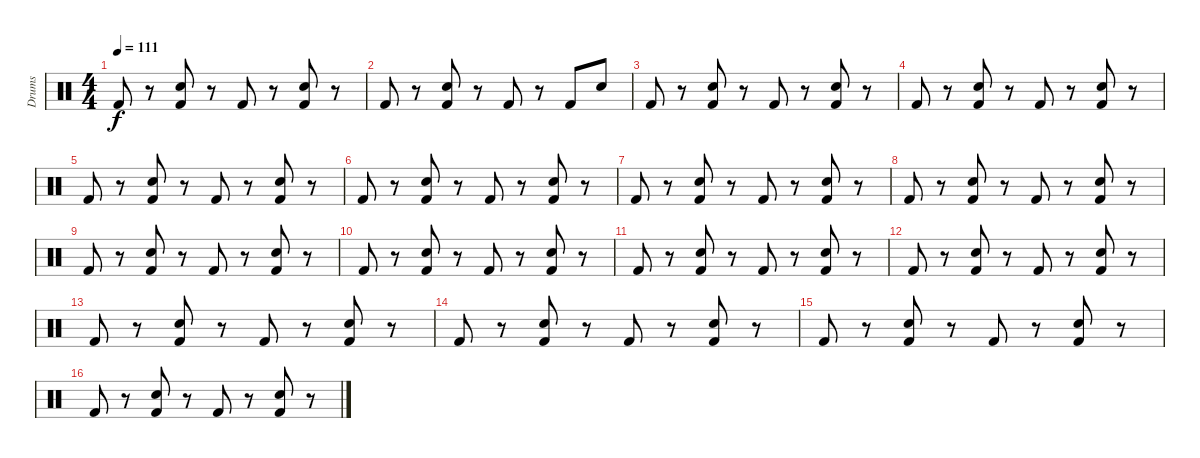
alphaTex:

\track ("Drums" "Drums") {instrument percussion}
\staff {score}
\articulation defaults
\ts (4 4)
\tempo 111
\clef neutral
\ks c "Kick (hit) 2".8{dy f}
r.8 ("Kick (hit) 2" "Electric Snare (hit)").8 r.8 "Kick (hit) 2".8 r.8 ("Kick (hit) 2" "Electric Snare (hit)").8 r.8 |
"Kick (hit) 2".8 r.8 ("Kick (hit) 2" "Electric Snare (hit)").8 r.8 "Kick (hit) 2".8 r.8 "Kick (hit) 2".8 "Electric Snare (hit)".8 |
"Kick (hit) 2".8 r.8 ("Kick (hit) 2" "Electric Snare (hit)").8 r.8 "Kick (hit) 2".8 r.8 ("Kick (hit) 2" "Electric Snare (hit)").8 r.8 |
"Kick (hit) 2".8 r.8 ("Kick (hit) 2" "Electric Snare (hit)").8 r.8 "Kick (hit) 2".8 r.8 ("Kick (hit) 2" "Electric Snare (hit)").8 r.8 |
"Kick (hit) 2".8 r.8 ("Kick (hit) 2" "Electric Snare (hit)").8 r.8 "Kick (hit) 2".8 r.8 ("Kick (hit) 2" "Electric Snare (hit)").8 r.8 |
"Kick (hit) 2".8 r.8 ("Kick (hit) 2" "Electric Snare (hit)").8 r.8 "Kick (hit) 2".8 r.8 ("Kick (hit) 2" "Electric Snare (hit)").8 r.8 |
"Kick (hit) 2".8 r.8 ("Kick (hit) 2" "Electric Snare (hit)").8 r.8 "Kick (hit) 2".8 r.8 ("Kick (hit) 2" "Electric Snare (hit)").8 r.8 |
"Kick (hit) 2".8 r.8 ("Kick (hit) 2" "Electric Snare (hit)").8 r.8 "Kick (hit) 2".8 r.8 ("Kick (hit) 2" "Electric Snare (hit)").8 r.8 |
"Kick (hit) 2".8 r.8 ("Kick (hit) 2" "Electric Snare (hit)").8 r.8 "Kick (hit) 2".8 r.8 ("Kick (hit) 2" "Electric Snare (hit)").8 r.8 |
"Kick (hit) 2".8 r.8 ("Kick (hit) 2" "Electric Snare (hit)").8 r.8 "Kick (hit) 2".8 r.8 ("Kick (hit) 2" "Electric Snare (hit)").8 r.8 |
"Kick (hit) 2".8 r.8 ("Kick (hit) 2" "Electric Snare (hit)").8 r.8 "Kick (hit) 2".8 r.8 ("Kick (hit) 2" "Electric Snare (hit)").8 r.8 |
"Kick (hit) 2".8 r.8 ("Kick (hit) 2" "Electric Snare (hit)").8 r.8 "Kick (hit) 2".8 r.8 ("Kick (hit) 2" "Electric Snare (hit)").8 r.8 |
"Kick (hit) 2".8 r.8 ("Kick (hit) 2" "Electric Snare (hit)").8 r.8 "Kick (hit) 2".8 r.8 ("Kick (hit) 2" "Electric Snare (hit)").8 r.8 |
"Kick (hit) 2".8 r.8 ("Kick (hit) 2" "Electric Snare (hit)").8 r.8 "Kick (hit) 2".8 r.8 ("Kick (hit) 2" "Electric Snare (hit)").8 r.8 |
"Kick (hit) 2".8 r.8 ("Kick (hit) 2" "Electric Snare (hit)").8 r.8 "Kick (hit) 2".8 r.8 ("Kick (hit) 2" "Electric Snare (hit)").8 r.8 |
"Kick (hit) 2".8 r.8 ("Kick (hit) 2" "Electric Snare (hit)").8 r.8 "Kick (hit) 2".8 r.8 ("Kick (hit) 2" "Electric Snare (hit)").8 r.8
